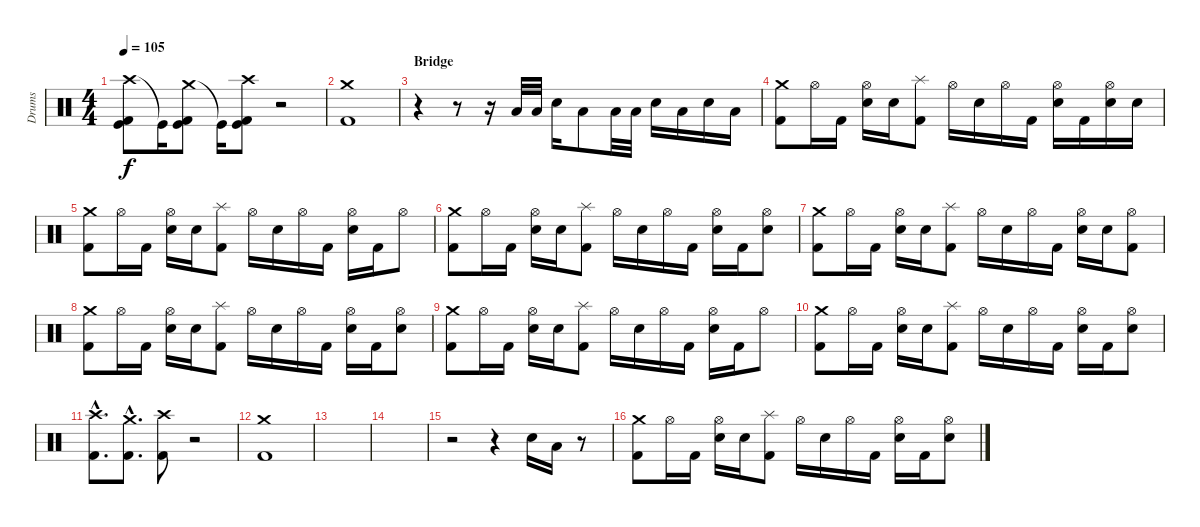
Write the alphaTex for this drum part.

\track ("Drums" "Drums") {instrument percussion}
\staff {score}
\articulation defaults
\ts (4 4)
\tempo 105
\clef neutral
\ks c
("Crash high (hit)" "Kick (hit) 2" "Kick (hit)").8{dy f} "Kick (hit)"{t}.16 ("Crash medium (hit)" "Kick (hit) 2" "Kick (hit)").8 "Kick (hit)"{t}.16 ("Crash high (hit)" "Kick (hit) 2" "Kick (hit)").8 r.2 |
("Crash medium (hit)" "Kick (hit) 2").1 |
\section ("" "Bridge")
r.4 r.8 r.16 "Low Tom (hit)".32 "Low Floor Tom (hit)".32 "Electric Snare (hit)".16 "Low Floor Tom (hit)".8 "Low Tom (hit)".32 "Low Floor Tom (hit)".32 "Electric Snare (hit)".16 "Low Floor Tom (hit)".16 "Electric Snare (hit)".16 "Low Floor Tom (hit)".16 |
("Crash medium (hit)" "Kick (hit) 2").8 "Hi-Hat (open)".16 "Kick (hit) 2".16 ("Hi-Hat (open)" "Electric Snare (hit)").16 "Electric Snare (hit)".16 ("Splash (hit)" "Kick (hit) 2").8 "Hi-Hat (open)".16 "Electric Snare (hit)".16 "Hi-Hat (open)".16 "Kick (hit) 2".16 ("Hi-Hat (open)" "Electric Snare (hit)").16 "Kick (hit) 2".16 ("Hi-Hat (open)" "Electric Snare (hit)").16 "Electric Snare (hit)".16 |
("Crash medium (hit)" "Kick (hit) 2").8 "Hi-Hat (open)".16 "Kick (hit) 2".16 ("Hi-Hat (open)" "Electric Snare (hit)").16 "Electric Snare (hit)".16 ("Splash (hit)" "Kick (hit) 2").8 "Hi-Hat (open)".16 "Electric Snare (hit)".16 "Hi-Hat (open)".16 "Kick (hit) 2".16 ("Hi-Hat (open)" "Electric Snare (hit)").16 "Kick (hit) 2".16 "Hi-Hat (open)".8 |
("Crash medium (hit)" "Kick (hit) 2").8 "Hi-Hat (open)".16 "Kick (hit) 2".16 ("Hi-Hat (open)" "Electric Snare (hit)").16 "Electric Snare (hit)".16 ("Splash (hit)" "Kick (hit) 2").8 "Hi-Hat (open)".16 "Electric Snare (hit)".16 "Hi-Hat (open)".16 "Kick (hit) 2".16 ("Hi-Hat (open)" "Electric Snare (hit)").16 "Kick (hit) 2".16 ("Hi-Hat (open)" "Electric Snare (hit)").8 |
("Crash medium (hit)" "Kick (hit) 2").8 "Hi-Hat (open)".16 "Kick (hit) 2".16 ("Hi-Hat (open)" "Electric Snare (hit)").16 "Electric Snare (hit)".16 ("Splash (hit)" "Kick (hit) 2").8 "Hi-Hat (open)".16 "Electric Snare (hit)".16 "Hi-Hat (open)".16 "Kick (hit) 2".16 ("Hi-Hat (open)" "Electric Snare (hit)").16 "Electric Snare (hit)".16 ("Hi-Hat (open)" "Kick (hit) 2").8 |
("Crash medium (hit)" "Kick (hit) 2").8 "Hi-Hat (open)".16 "Kick (hit) 2".16 ("Hi-Hat (open)" "Electric Snare (hit)").16 "Electric Snare (hit)".16 ("Splash (hit)" "Kick (hit) 2").8 "Hi-Hat (open)".16 "Electric Snare (hit)".16 "Hi-Hat (open)".16 "Kick (hit) 2".16 ("Hi-Hat (open)" "Electric Snare (hit)").16 "Kick (hit) 2".16 ("Hi-Hat (open)" "Electric Snare (hit)").8 |
("Crash medium (hit)" "Kick (hit) 2").8 "Hi-Hat (open)".16 "Kick (hit) 2".16 ("Hi-Hat (open)" "Electric Snare (hit)").16 "Electric Snare (hit)".16 ("Splash (hit)" "Kick (hit) 2").8 "Hi-Hat (open)".16 "Electric Snare (hit)".16 "Hi-Hat (open)".16 "Kick (hit) 2".16 ("Hi-Hat (open)" "Electric Snare (hit)").16 "Kick (hit) 2".16 "Hi-Hat (open)".8 |
("Crash medium (hit)" "Kick (hit) 2").8 "Hi-Hat (open)".16 "Kick (hit) 2".16 ("Hi-Hat (open)" "Electric Snare (hit)").16 "Electric Snare (hit)".16 ("Splash (hit)" "Kick (hit) 2").8 "Hi-Hat (open)".16 "Electric Snare (hit)".16 "Hi-Hat (open)".16 "Kick (hit) 2".16 ("Hi-Hat (open)" "Electric Snare (hit)").16 "Kick (hit) 2".16 ("Hi-Hat (open)" "Electric Snare (hit)").8 |
("Crash high (hit)"{hac} "Kick (hit) 2"{hac}).8{d} ("Crash medium (hit)"{hac} "Kick (hit) 2"{hac}).8{d} ("Crash high (hit)" "Kick (hit) 2").8 r.2 |
("Crash medium (hit)" "Kick (hit) 2").1 |
|
|
r.2 r.4 "Electric Snare (hit)".16{volume 16} "Low Floor Tom (hit)".16 r.8 |
("Crash medium (hit)" "Kick (hit) 2").8 "Hi-Hat (open)".16 "Kick (hit) 2".16 ("Hi-Hat (open)" "Electric Snare (hit)").16 "Electric Snare (hit)".16 ("Splash (hit)" "Kick (hit) 2").8 "Hi-Hat (open)".16 "Electric Snare (hit)".16 "Hi-Hat (open)".16 "Kick (hit) 2".16 ("Hi-Hat (open)" "Electric Snare (hit)").16 "Kick (hit) 2".16 ("Hi-Hat (open)" "Electric Snare (hit)").8
